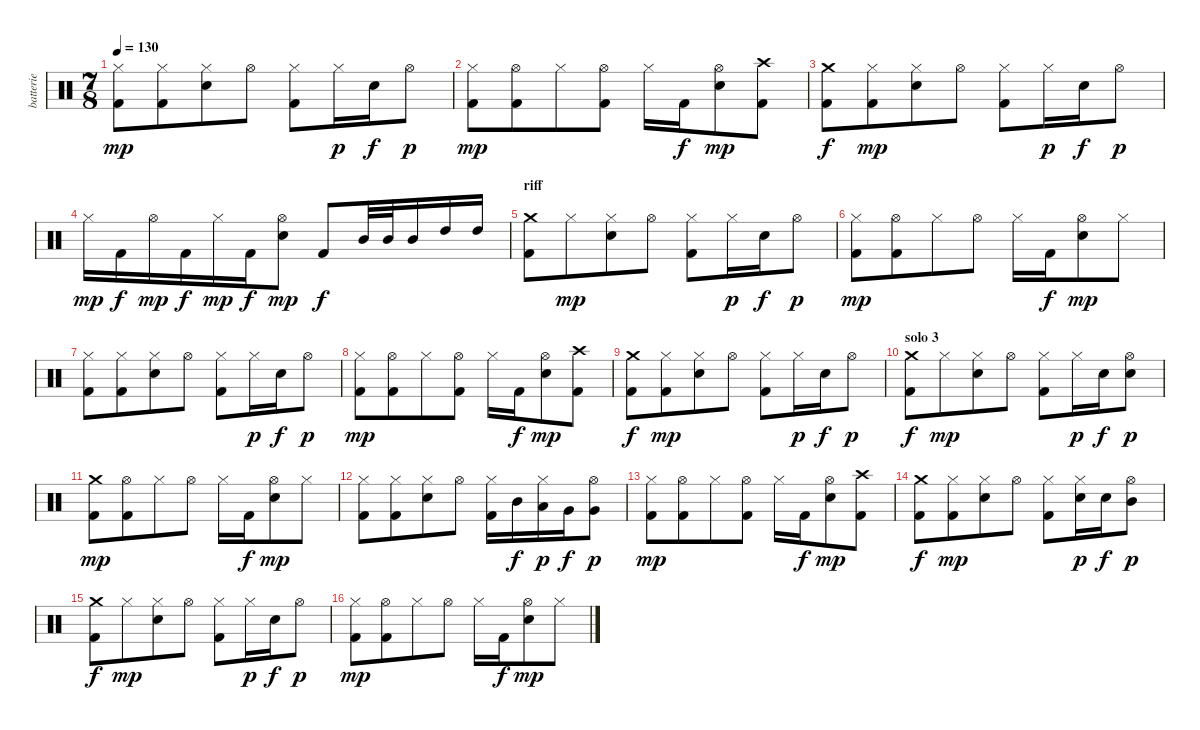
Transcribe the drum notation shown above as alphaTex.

\track ("batterie" "batterie") {instrument percussion}
\staff {score}
\articulation defaults
\ts (7 8)
\tempo 130
\clef neutral
\ks c
("Hi-Hat (closed)" "Kick (hit) 2").8{dy mp} ("Hi-Hat (closed)" "Kick (hit) 2").8 ("Hi-Hat (closed)" "Electric Snare (hit)").8 "Hi-Hat (open)".8 ("Hi-Hat (closed)" "Kick (hit) 2").8 "Hi-Hat (closed)".16{dy p} "Electric Snare (hit)".16{dy f} "Hi-Hat (open)".8{dy p} |
("Hi-Hat (closed)" "Kick (hit) 2").8{dy mp} ("Hi-Hat (open)" "Kick (hit) 2").8 "Hi-Hat (closed)".8 ("Hi-Hat (open)" "Kick (hit) 2").8 "Hi-Hat (closed)".16 "Kick (hit) 2".16{dy f} ("Hi-Hat (open)" "Electric Snare (hit)").8{dy mp} ("Crash high (hit)" "Kick (hit) 2").8 |
("Crash medium (hit)" "Kick (hit) 2").8{dy f} ("Hi-Hat (closed)" "Kick (hit) 2").8{dy mp} ("Hi-Hat (closed)" "Electric Snare (hit)").8 "Hi-Hat (open)".8 ("Hi-Hat (closed)" "Kick (hit) 2").8 "Hi-Hat (closed)".16{dy p} "Electric Snare (hit)".16{dy f} "Hi-Hat (open)".8{dy p} |
"Hi-Hat (closed)".16{dy mp} "Kick (hit) 2".16{dy f} "Hi-Hat (open)".16{dy mp} "Kick (hit) 2".16{dy f} "Hi-Hat (closed)".16{dy mp} "Kick (hit) 2".16{dy f} ("Hi-Hat (open)" "Electric Snare (hit)").8{dy mp} "Kick (hit) 2".8{dy f} "Mid Tom (hit)".32 "Mid Tom (hit)".32 "Mid Tom (hit)".16 "High Tom (hit)".16 "High Tom (hit)".16 |
\section ("" "riff")
("Crash medium (hit)" "Kick (hit) 2").8 "Hi-Hat (closed)".8{dy mp} ("Hi-Hat (closed)" "Electric Snare (hit)").8 "Hi-Hat (open)".8 ("Hi-Hat (closed)" "Kick (hit) 2").8 "Hi-Hat (closed)".16{dy p} "Electric Snare (hit)".16{dy f} "Hi-Hat (open)".8{dy p} |
("Hi-Hat (closed)" "Kick (hit) 2").8{dy mp} ("Hi-Hat (open)" "Kick (hit) 2").8 "Hi-Hat (closed)".8 "Hi-Hat (open)".8 "Hi-Hat (closed)".16 "Kick (hit) 2".16{dy f} ("Hi-Hat (open)" "Electric Snare (hit)").8{dy mp} "Hi-Hat (closed)".8 |
("Hi-Hat (closed)" "Kick (hit) 2").8 ("Hi-Hat (closed)" "Kick (hit) 2").8 ("Hi-Hat (closed)" "Electric Snare (hit)").8 "Hi-Hat (open)".8 ("Hi-Hat (closed)" "Kick (hit) 2").8 "Hi-Hat (closed)".16{dy p} "Electric Snare (hit)".16{dy f} "Hi-Hat (open)".8{dy p} |
("Hi-Hat (closed)" "Kick (hit) 2").8{dy mp} ("Hi-Hat (open)" "Kick (hit) 2").8 "Hi-Hat (closed)".8 ("Hi-Hat (open)" "Kick (hit) 2").8 "Hi-Hat (closed)".16 "Kick (hit) 2".16{dy f} ("Hi-Hat (open)" "Electric Snare (hit)").8{dy mp} ("Crash high (hit)" "Kick (hit) 2").8 |
("Crash medium (hit)" "Kick (hit) 2").8{dy f} ("Hi-Hat (closed)" "Kick (hit) 2").8{dy mp} ("Hi-Hat (closed)" "Electric Snare (hit)").8 "Hi-Hat (open)".8 ("Hi-Hat (closed)" "Kick (hit) 2").8 "Hi-Hat (closed)".16{dy p} "Electric Snare (hit)".16{dy f} "Hi-Hat (open)".8{dy p} |
\section ("" "solo 3")
("Crash medium (hit)" "Kick (hit) 2").8{dy f} "Hi-Hat (closed)".8{dy mp} ("Hi-Hat (closed)" "Electric Snare (hit)").8 "Hi-Hat (open)".8 ("Hi-Hat (closed)" "Kick (hit) 2").8 "Hi-Hat (closed)".16{dy p} "Electric Snare (hit)".16{dy f} ("Hi-Hat (open)" "Electric Snare (hit)").8{dy p} |
("Crash medium (hit)" "Kick (hit) 2").8{dy mp} ("Hi-Hat (open)" "Kick (hit) 2").8 "Hi-Hat (closed)".8 "Hi-Hat (open)".8 "Hi-Hat (closed)".16 "Kick (hit) 2".16{dy f} ("Hi-Hat (open)" "Electric Snare (hit)").8{dy mp} "Hi-Hat (closed)".8 |
("Hi-Hat (closed)" "Kick (hit) 2").8 ("Hi-Hat (closed)" "Kick (hit) 2").8 ("Hi-Hat (closed)" "Electric Snare (hit)").8 "Hi-Hat (open)".8 ("Hi-Hat (closed)" "Kick (hit) 2").16 "Mid Tom (hit)".16{dy f} ("Hi-Hat (closed)" "Low Tom (hit)").16{dy p} "Very Low Tom (hit)".16{dy f} ("Hi-Hat (open)" "Very Low Tom (hit)").8{dy p} |
("Hi-Hat (closed)" "Kick (hit) 2").8{dy mp} ("Hi-Hat (open)" "Kick (hit) 2").8 "Hi-Hat (closed)".8 ("Hi-Hat (open)" "Kick (hit) 2").8 "Hi-Hat (closed)".16 "Kick (hit) 2".16{dy f} ("Hi-Hat (open)" "Electric Snare (hit)").8{dy mp} ("Crash high (hit)" "Kick (hit) 2").8 |
("Crash medium (hit)" "Kick (hit) 2").8{dy f} ("Hi-Hat (closed)" "Kick (hit) 2").8{dy mp} ("Hi-Hat (closed)" "Electric Snare (hit)").8 "Hi-Hat (open)".8 ("Hi-Hat (closed)" "Kick (hit) 2").8 ("Hi-Hat (closed)" "Electric Snare (hit)").16{dy p} "Electric Snare (hit)".16{dy f} ("Hi-Hat (open)" "Mid Tom (hit)").8{dy p} |
("Crash medium (hit)" "Kick (hit) 2").8{dy f} "Hi-Hat (closed)".8{dy mp} ("Hi-Hat (closed)" "Electric Snare (hit)").8 "Hi-Hat (open)".8 ("Hi-Hat (closed)" "Kick (hit) 2").8 "Hi-Hat (closed)".16{dy p} "Electric Snare (hit)".16{dy f} "Hi-Hat (open)".8{dy p} |
("Hi-Hat (closed)" "Kick (hit) 2").8{dy mp} ("Hi-Hat (open)" "Kick (hit) 2").8 "Hi-Hat (closed)".8 "Hi-Hat (open)".8 "Hi-Hat (closed)".16 "Kick (hit) 2".16{dy f} ("Hi-Hat (open)" "Electric Snare (hit)").8{dy mp} "Hi-Hat (closed)".8
